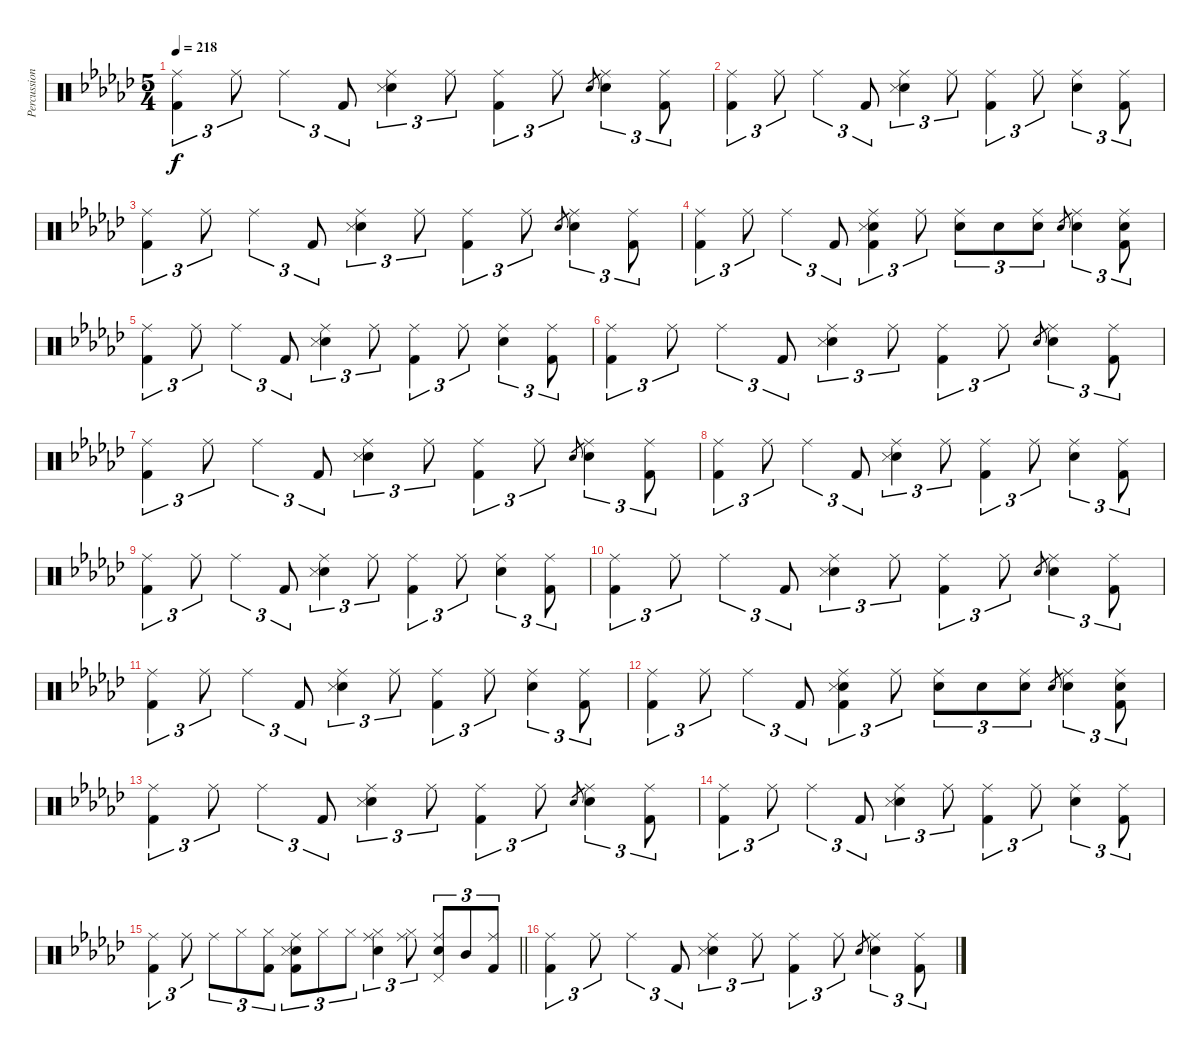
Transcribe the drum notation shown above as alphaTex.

\track ("Percussions" "Percussion") {instrument percussion}
\staff {score}
\articulation defaults
\ts (5 4)
\tempo 218
\clef neutral
\ks ebminor
("Ride (middle)" "Kick (hit) 2").4{tu (3 2) dy f} "Ride (middle)".8{tu (3 2)} "Ride (middle)".4{tu (3 2)} "Kick (hit) 2".8{tu (3 2)} ("Ride (middle)" "Snare (hit) 2" "Snare (side stick) 3").4{tu (3 2)} "Ride (middle)".8{tu (3 2)} ("Ride (middle)" "Kick (hit) 2").4{tu (3 2)} "Ride (middle)".8{tu (3 2)} "Snare (hit) 2".8{gr} ("Ride (middle)" "Snare (hit) 2").4{tu (3 2)} ("Ride (middle)" "Kick (hit) 2").8{tu (3 2)} |
("Ride (middle)" "Kick (hit) 2").4{tu (3 2)} "Ride (middle)".8{tu (3 2)} "Ride (middle)".4{tu (3 2)} "Kick (hit) 2".8{tu (3 2)} ("Ride (middle)" "Snare (hit) 2" "Snare (side stick) 3").4{tu (3 2)} "Ride (middle)".8{tu (3 2)} ("Ride (middle)" "Kick (hit) 2").4{tu (3 2)} "Ride (middle)".8{tu (3 2)} ("Ride (middle)" "Snare (hit) 2").4{tu (3 2)} ("Ride (middle)" "Kick (hit) 2").8{tu (3 2)} |
("Ride (middle)" "Kick (hit) 2").4{tu (3 2)} "Ride (middle)".8{tu (3 2)} "Ride (middle)".4{tu (3 2)} "Kick (hit) 2".8{tu (3 2)} ("Ride (middle)" "Snare (hit) 2" "Snare (side stick) 3").4{tu (3 2)} "Ride (middle)".8{tu (3 2)} ("Ride (middle)" "Kick (hit) 2").4{tu (3 2)} "Ride (middle)".8{tu (3 2)} "Snare (hit) 2".8{gr} ("Ride (middle)" "Snare (hit) 2").4{tu (3 2)} ("Ride (middle)" "Kick (hit) 2").8{tu (3 2)} |
("Ride (middle)" "Kick (hit) 2").4{tu (3 2)} "Ride (middle)".8{tu (3 2)} "Ride (middle)".4{tu (3 2)} "Kick (hit) 2".8{tu (3 2)} ("Ride (middle)" "Snare (hit) 2" "Snare (side stick) 3" "Kick (hit) 2").4{tu (3 2)} "Ride (middle)".8{tu (3 2)} ("Ride (middle)" "Snare (hit) 2").8{tu (3 2)} "Snare (hit) 2".8{tu (3 2)} ("Ride (middle)" "Snare (hit) 2").8{tu (3 2)} "Snare (hit) 2".8{gr} ("Ride (middle)" "Snare (hit) 2").4{tu (3 2)} ("Ride (middle)" "Snare (hit) 2" "Kick (hit) 2").8{tu (3 2)} |
("Ride (middle)" "Kick (hit) 2").4{tu (3 2)} "Ride (middle)".8{tu (3 2)} "Ride (middle)".4{tu (3 2)} "Kick (hit) 2".8{tu (3 2)} ("Ride (middle)" "Snare (hit) 2" "Snare (side stick) 3").4{tu (3 2)} "Ride (middle)".8{tu (3 2)} ("Ride (middle)" "Kick (hit) 2").4{tu (3 2)} "Ride (middle)".8{tu (3 2)} ("Ride (middle)" "Snare (hit) 2").4{tu (3 2)} ("Ride (middle)" "Kick (hit) 2").8{tu (3 2)} |
("Ride (middle)" "Kick (hit) 2").4{tu (3 2)} "Ride (middle)".8{tu (3 2)} "Ride (middle)".4{tu (3 2)} "Kick (hit) 2".8{tu (3 2)} ("Ride (middle)" "Snare (hit) 2" "Snare (side stick) 3").4{tu (3 2)} "Ride (middle)".8{tu (3 2)} ("Ride (middle)" "Kick (hit) 2").4{tu (3 2)} "Ride (middle)".8{tu (3 2)} "Snare (hit) 2".8{gr} ("Ride (middle)" "Snare (hit) 2").4{tu (3 2)} ("Ride (middle)" "Kick (hit) 2").8{tu (3 2)} |
("Ride (middle)" "Kick (hit) 2").4{tu (3 2)} "Ride (middle)".8{tu (3 2)} "Ride (middle)".4{tu (3 2)} "Kick (hit) 2".8{tu (3 2)} ("Ride (middle)" "Snare (hit) 2" "Snare (side stick) 3").4{tu (3 2)} "Ride (middle)".8{tu (3 2)} ("Ride (middle)" "Kick (hit) 2").4{tu (3 2)} "Ride (middle)".8{tu (3 2)} "Snare (hit) 2".8{gr} ("Ride (middle)" "Snare (hit) 2").4{tu (3 2)} ("Ride (middle)" "Kick (hit) 2").8{tu (3 2)} |
("Ride (middle)" "Kick (hit) 2").4{tu (3 2)} "Ride (middle)".8{tu (3 2)} "Ride (middle)".4{tu (3 2)} "Kick (hit) 2".8{tu (3 2)} ("Ride (middle)" "Snare (hit) 2" "Snare (side stick) 3").4{tu (3 2)} "Ride (middle)".8{tu (3 2)} ("Ride (middle)" "Kick (hit) 2").4{tu (3 2)} "Ride (middle)".8{tu (3 2)} ("Ride (middle)" "Snare (hit) 2").4{tu (3 2)} ("Ride (middle)" "Kick (hit) 2").8{tu (3 2)} |
("Ride (middle)" "Kick (hit) 2").4{tu (3 2)} "Ride (middle)".8{tu (3 2)} "Ride (middle)".4{tu (3 2)} "Kick (hit) 2".8{tu (3 2)} ("Ride (middle)" "Snare (hit) 2" "Snare (side stick) 3").4{tu (3 2)} "Ride (middle)".8{tu (3 2)} ("Ride (middle)" "Kick (hit) 2").4{tu (3 2)} "Ride (middle)".8{tu (3 2)} ("Ride (middle)" "Snare (hit) 2").4{tu (3 2)} ("Ride (middle)" "Kick (hit) 2").8{tu (3 2)} |
("Ride (middle)" "Kick (hit) 2").4{tu (3 2)} "Ride (middle)".8{tu (3 2)} "Ride (middle)".4{tu (3 2)} "Kick (hit) 2".8{tu (3 2)} ("Ride (middle)" "Snare (hit) 2" "Snare (side stick) 3").4{tu (3 2)} "Ride (middle)".8{tu (3 2)} ("Ride (middle)" "Kick (hit) 2").4{tu (3 2)} "Ride (middle)".8{tu (3 2)} "Snare (hit) 2".8{gr} ("Ride (middle)" "Snare (hit) 2").4{tu (3 2)} ("Ride (middle)" "Kick (hit) 2").8{tu (3 2)} |
("Ride (middle)" "Kick (hit) 2").4{tu (3 2)} "Ride (middle)".8{tu (3 2)} "Ride (middle)".4{tu (3 2)} "Kick (hit) 2".8{tu (3 2)} ("Ride (middle)" "Snare (hit) 2" "Snare (side stick) 3").4{tu (3 2)} "Ride (middle)".8{tu (3 2)} ("Ride (middle)" "Kick (hit) 2").4{tu (3 2)} "Ride (middle)".8{tu (3 2)} ("Ride (middle)" "Snare (hit) 2").4{tu (3 2)} ("Ride (middle)" "Kick (hit) 2").8{tu (3 2)} |
("Ride (middle)" "Kick (hit) 2").4{tu (3 2)} "Ride (middle)".8{tu (3 2)} "Ride (middle)".4{tu (3 2)} "Kick (hit) 2".8{tu (3 2)} ("Ride (middle)" "Snare (hit) 2" "Snare (side stick) 3" "Kick (hit) 2").4{tu (3 2)} "Ride (middle)".8{tu (3 2)} ("Ride (middle)" "Snare (hit) 2").8{tu (3 2)} "Snare (hit) 2".8{tu (3 2)} ("Ride (middle)" "Snare (hit) 2").8{tu (3 2)} "Snare (hit) 2".8{gr} ("Ride (middle)" "Snare (hit) 2").4{tu (3 2)} ("Ride (middle)" "Snare (hit) 2" "Kick (hit) 2").8{tu (3 2)} |
("Ride (middle)" "Kick (hit) 2").4{tu (3 2)} "Ride (middle)".8{tu (3 2)} "Ride (middle)".4{tu (3 2)} "Kick (hit) 2".8{tu (3 2)} ("Ride (middle)" "Snare (hit) 2" "Snare (side stick) 3").4{tu (3 2)} "Ride (middle)".8{tu (3 2)} ("Ride (middle)" "Kick (hit) 2").4{tu (3 2)} "Ride (middle)".8{tu (3 2)} "Snare (hit) 2".8{gr} ("Ride (middle)" "Snare (hit) 2").4{tu (3 2)} ("Ride (middle)" "Kick (hit) 2").8{tu (3 2)} |
("Ride (middle)" "Kick (hit) 2").4{tu (3 2)} "Ride (middle)".8{tu (3 2)} "Ride (middle)".4{tu (3 2)} "Kick (hit) 2".8{tu (3 2)} ("Ride (middle)" "Snare (hit) 2" "Snare (side stick) 3").4{tu (3 2)} "Ride (middle)".8{tu (3 2)} ("Ride (middle)" "Kick (hit) 2").4{tu (3 2)} "Ride (middle)".8{tu (3 2)} ("Ride (middle)" "Snare (hit) 2").4{tu (3 2)} ("Ride (middle)" "Kick (hit) 2").8{tu (3 2)} |
\barLineRight lightlight
("Ride (middle)" "Kick (hit) 2").4{tu (3 2)} "Ride (middle)".8{tu (3 2)} "Ride (middle)".8{tu (3 2)} "Hi-Hat (closed)".8{tu (3 2)} ("Hi-Hat (closed)" "Kick (hit) 2").8{tu (3 2)} ("Ride (middle)" "Snare (hit) 2" "Snare (side stick) 3" "Kick (hit) 2").8{tu (3 2)} "Hi-Hat (closed)".8{tu (3 2)} "Hi-Hat (closed)".8{tu (3 2)} ("Ride (middle)" "Hi-Hat (closed)" "Snare (hit) 2").4{tu (3 2)} ("Ride (middle)" "Hi-Hat (closed)").8{tu (3 2)} ("Ride (middle)" "Pedal Hi-Hat (hit)" "Snare (hit) 2").8{tu (3 2)} "Mid Tom (hit)".8{tu (3 2)} ("Ride (middle)" "Kick (hit) 2").8{tu (3 2)} |
("Ride (middle)" "Kick (hit) 2").4{tu (3 2) volume 14 balance 8} "Ride (middle)".8{tu (3 2)} "Ride (middle)".4{tu (3 2)} "Kick (hit) 2".8{tu (3 2)} ("Ride (middle)" "Snare (hit) 2" "Snare (side stick) 3").4{tu (3 2)} "Ride (middle)".8{tu (3 2)} ("Ride (middle)" "Kick (hit) 2").4{tu (3 2)} "Ride (middle)".8{tu (3 2)} "Snare (hit) 2".8{gr} ("Ride (middle)" "Snare (hit) 2").4{tu (3 2)} ("Ride (middle)" "Kick (hit) 2").8{tu (3 2)}
